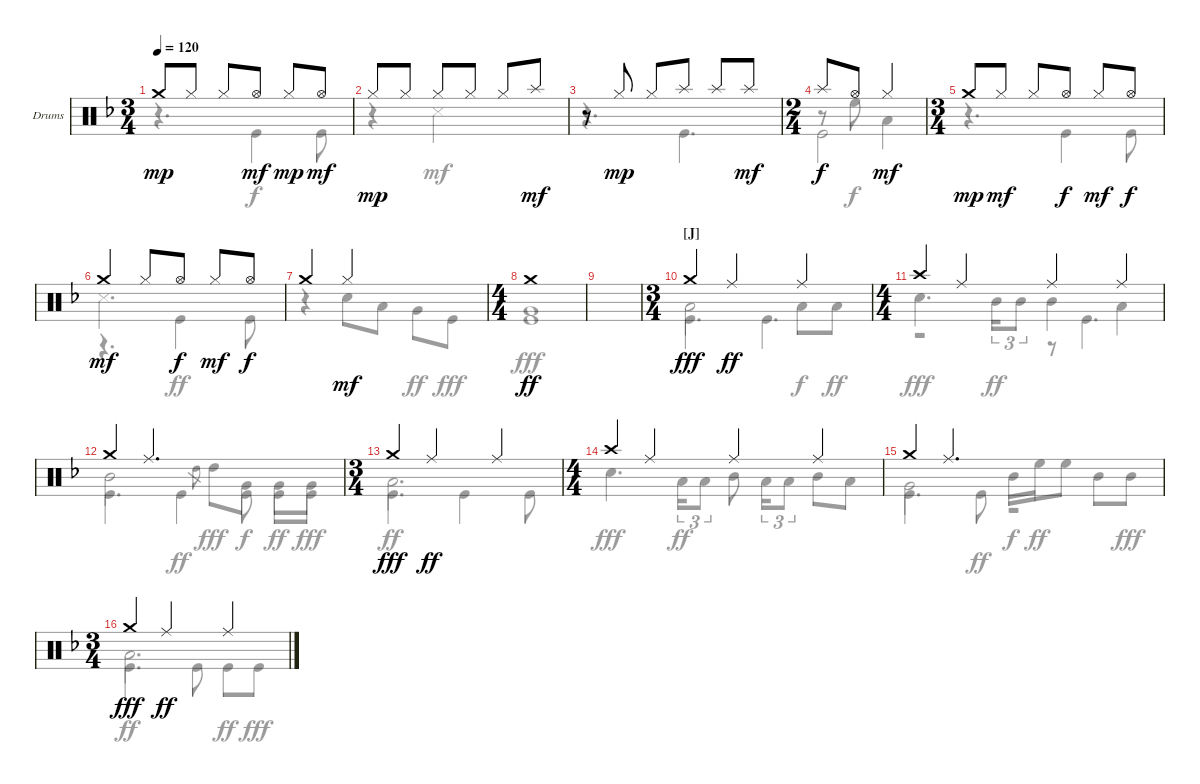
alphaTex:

\defaultSystemsLayout 4
\bracketExtendMode groupsimilarinstruments
\firstSystemTrackNameOrientation horizontal
\otherSystemsTrackNameOrientation horizontal
\track ("Drumkit" "Drums") {instrument percussion}
\staff {score}
\articulation defaults
\voice
\ts (3 4)
\tempo 120
\clef neutral
\ks f "Crash medium (hit)".8{dy mp} "Hi-Hat (closed)".8 "Hi-Hat (closed)".8 "Hi-Hat (open)".8{dy mf} "Hi-Hat (closed)".8{dy mp} "Hi-Hat (open)".8{dy mf}
|
"Hi-Hat (closed)".8{dy mp} "Hi-Hat (closed)".8 "Hi-Hat (closed)".8 "Hi-Hat (closed)".8 "Hi-Hat (closed)".8 "Splash (hit)".8{dy mf} |
r.8 "Hi-Hat (closed)".8{dy mp} "Hi-Hat (closed)".8 "Splash (hit)".8 "Splash (hit)".8 "Splash (hit)".8{dy mf} |
\ts (2 4)
"Splash (hit)".8{dy f} "Hi-Hat (open)".8 "Hi-Hat (closed)".4{dy mf} |
\ts (3 4)
"Crash medium (hit)".8{dy mp} "Hi-Hat (closed)".8{dy mf} "Hi-Hat (closed)".8 "Hi-Hat (open)".8{dy f} "Hi-Hat (closed)".8{dy mf} "Hi-Hat (open)".8{dy f} |
"Crash medium (hit)".4{dy mf} "Hi-Hat (closed)".8 "Hi-Hat (open)".8{dy f} "Hi-Hat (closed)".8{dy mf} "Hi-Hat (open)".8{dy f} |
"Crash medium (hit)".4 "Hi-Hat (closed)".2{dy mf} |
\ts (4 4)
"Crash medium (hit)".1{dy ff} |
|
\ts (3 4)
\section ("J" "")
"Crash medium (hit)".4{dy fff} "Ride (middle)".4{dy ff} "Ride (middle)".4 |
\ts (4 4)
"Crash high (hit)".4 "Ride (middle)".4 "Ride (middle)".4 "Ride (middle)".4 |
"Crash medium (hit)".4 "Ride (middle)".2{d} |
\ts (3 4)
"Crash medium (hit)".4{dy fff} "Ride (middle)".4{dy ff} "Ride (middle)".4 |
\ts (4 4)
"Crash high (hit)".4 "Ride (middle)".4 "Ride (middle)".4 "Ride (middle)".4 |
"Crash medium (hit)".4 "Ride (middle)".2{d} |
\ts (3 4)
"Crash medium (hit)".4{dy fff} "Ride (middle)".4{dy ff} "Ride (middle)".4
\voice
\clef neutral
\ottava regular
\simile none
\ks f
|
r.4 "Snare (side stick) 3".2{dy mf} |
|
r.8 "High Floor Tom (hit)".8{dy f} "Low Tom (hit)".4 |
|
"Snare (side stick) 3".2{d} |
r.4 "Snare (hit) 2".8 "Low Tom (hit)".8 "Very Low Tom (hit)".8{dy ff} "Kick (hit)".8{dy fff} |
"Very Low Tom (hit)".1{dy ff} |
|
"Low Tom (hit)".2 "Low Tom (hit)".8{dy f} "Low Tom (hit)".8{dy ff} |
"Snare (hit) 2".4{d dy fff} "Mid Tom (hit)".16{tu (3 2) dy ff} "Mid Tom (hit)".8{tu (3 2)} "Mid Tom (hit)".4 "Low Tom (hit)".4 |
"Mid Tom (hit)".2 "High Tom (hit)".8{gr} "High Tom (hit)".8{dy fff} "Very Low Tom (hit)".8{dy f} "Very Low Tom (hit)".8{dy ff} "Very Low Tom (hit)".8{dy fff} |
"Low Tom (hit)".2{d dy ff} |
"Snare (hit) 2".4{d dy fff} "Low Tom (hit)".16{tu (3 2) dy ff} "Low Tom (hit)".8{tu (3 2)} "Mid Tom (hit)".8 "Low Tom (hit)".16{tu (3 2)} "Low Tom (hit)".8{tu (3 2)} "Mid Tom (hit)".8 "Low Tom (hit)".8 |
"Very Low Tom (hit)".2 "Mid Tom (hit)".16{dy f} "High Floor Tom (hit)".16{dy ff} "High Floor Tom (hit)".8 "Mid Tom (hit)".8 "Mid Tom (hit)".8{dy fff} |
"Low Tom (hit)".2{d dy ff}
\voice
\clef neutral
\ottava regular
\simile none
\ks f
r.4{d dy f} "Kick (hit)".4 "Kick (hit)".8 |
|
r.4{d} "Kick (hit)".4{d} |
"Kick (hit)".2 |
r.4{d} "Kick (hit)".4 "Kick (hit)".8 |
r.4{d} "Kick (hit)".4{dy ff} "Kick (hit)".8 |
|
"Kick (hit)".1{dy fff} |
|
"Kick (hit)".4{d} "Kick (hit)".4{d} |
r.2 r.8 "Kick (hit)".4{d} |
"Kick (hit)".4{d} "Kick (hit)".4{dy ff} "Kick (hit)".8 "Kick (hit)".8 "Kick (hit)".8{dy fff} |
"Kick (hit)".4{d} "Kick (hit)".4 "Kick (hit)".8 |
|
"Kick (hit)".4{d} "Kick (hit)".8{dy ff} r.2 |
"Kick (hit)".4{d dy fff} "Kick (hit)".8 "Kick (hit)".8{dy ff} "Kick (hit)".8{dy fff}
